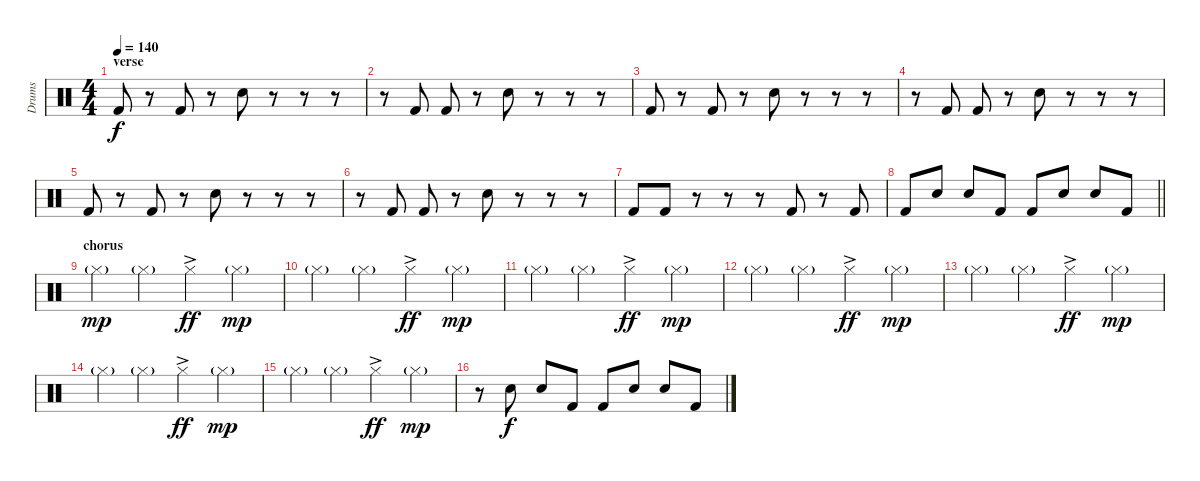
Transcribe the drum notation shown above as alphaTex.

\track ("Drums" "Drums") {instrument percussion}
\staff {score}
\articulation defaults
\ts (4 4)
\section ("" "verse")
\tempo 140
\clef neutral
\ks c "Kick (hit) 2".8{dy f}
r.8 "Kick (hit) 2".8 r.8 "Electric Snare (hit)".8 r.8 r.8 r.8 |
r.8 "Kick (hit) 2".8 "Kick (hit) 2".8 r.8 "Electric Snare (hit)".8 r.8 r.8 r.8 |
"Kick (hit) 2".8 r.8 "Kick (hit) 2".8 r.8 "Electric Snare (hit)".8 r.8 r.8 r.8 |
r.8 "Kick (hit) 2".8 "Kick (hit) 2".8 r.8 "Electric Snare (hit)".8 r.8 r.8 r.8 |
"Kick (hit) 2".8 r.8 "Kick (hit) 2".8 r.8 "Electric Snare (hit)".8 r.8 r.8 r.8 |
r.8 "Kick (hit) 2".8 "Kick (hit) 2".8 r.8 "Electric Snare (hit)".8 r.8 r.8 r.8 |
"Kick (hit) 2".8 "Kick (hit) 2".8 r.8 r.8 r.8 "Kick (hit) 2".8 r.8 "Kick (hit) 2".8 |
\barLineRight lightlight "Kick (hit) 2".8 "Electric Snare (hit)".8 "Electric Snare (hit)".8 "Kick (hit) 2".8 "Kick (hit) 2".8 "Electric Snare (hit)".8 "Electric Snare (hit)".8 "Kick (hit) 2".8
|
\section ("" "chorus")
"Hi-Hat (closed)"{g}.4{dy mp} "Hi-Hat (closed)"{g}.4 "Hi-Hat (closed)"{ac}.4{dy ff} "Hi-Hat (closed)"{g}.4{dy mp} |
"Hi-Hat (closed)"{g}.4 "Hi-Hat (closed)"{g}.4 "Hi-Hat (closed)"{ac}.4{dy ff} "Hi-Hat (closed)"{g}.4{dy mp} |
"Hi-Hat (closed)"{g}.4 "Hi-Hat (closed)"{g}.4 "Hi-Hat (closed)"{ac}.4{dy ff} "Hi-Hat (closed)"{g}.4{dy mp} |
"Hi-Hat (closed)"{g}.4 "Hi-Hat (closed)"{g}.4 "Hi-Hat (closed)"{ac}.4{dy ff} "Hi-Hat (closed)"{g}.4{dy mp} |
"Hi-Hat (closed)"{g}.4 "Hi-Hat (closed)"{g}.4 "Hi-Hat (closed)"{ac}.4{dy ff} "Hi-Hat (closed)"{g}.4{dy mp} |
"Hi-Hat (closed)"{g}.4 "Hi-Hat (closed)"{g}.4 "Hi-Hat (closed)"{ac}.4{dy ff} "Hi-Hat (closed)"{g}.4{dy mp} |
"Hi-Hat (closed)"{g}.4 "Hi-Hat (closed)"{g}.4 "Hi-Hat (closed)"{ac}.4{dy ff} "Hi-Hat (closed)"{g}.4{dy mp} |
r.8 "Electric Snare (hit)".8{dy f} "Electric Snare (hit)".8 "Kick (hit) 2".8 "Kick (hit) 2".8 "Electric Snare (hit)".8 "Electric Snare (hit)".8 "Kick (hit) 2".8
